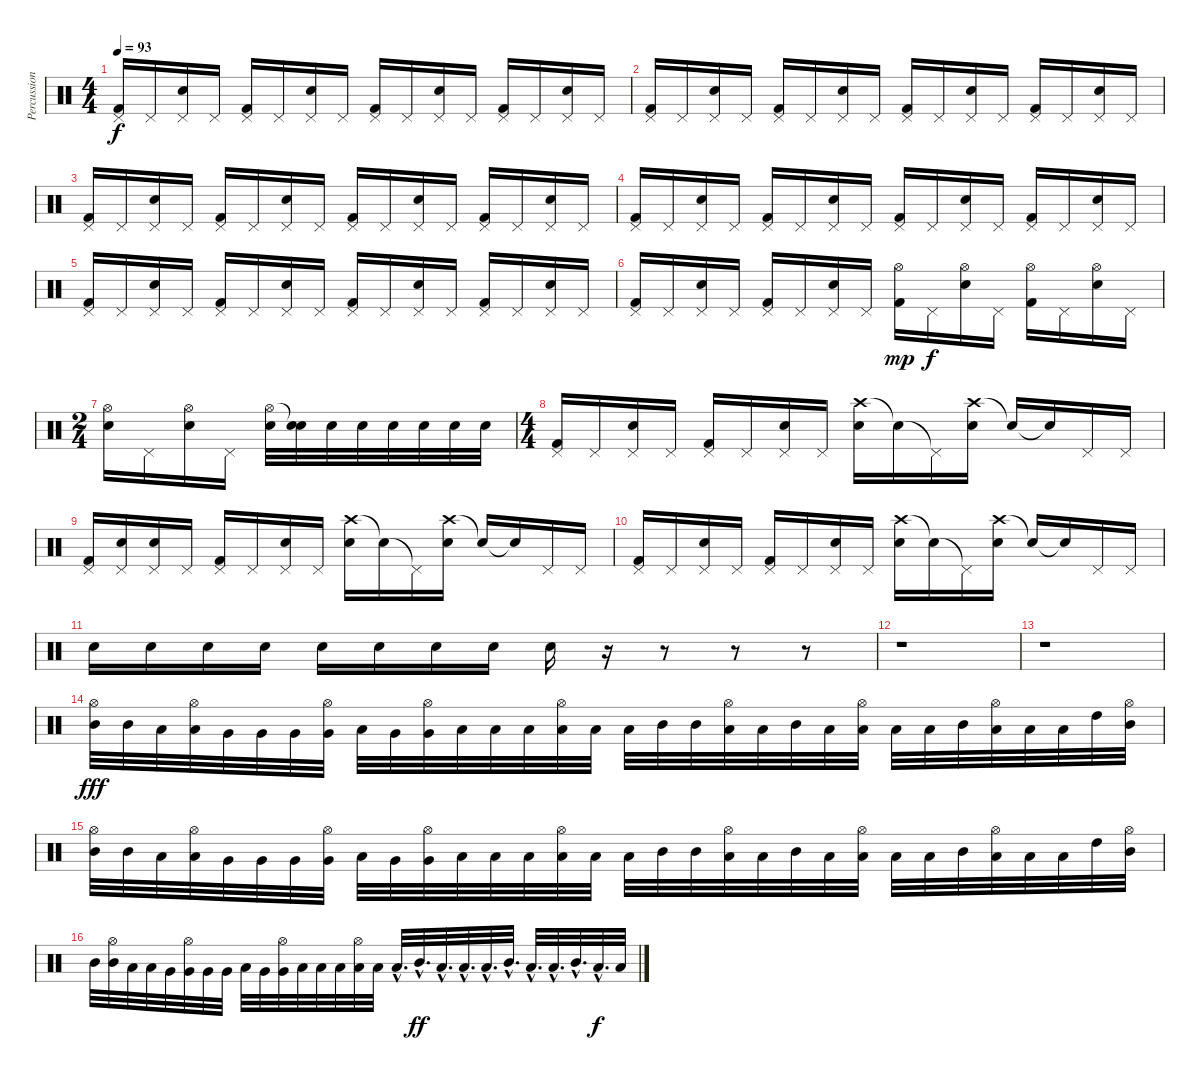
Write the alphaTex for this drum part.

\track ("Percussioni" "Percussion") {instrument percussion}
\staff {score}
\articulation defaults
\ts (4 4)
\tempo 93
\clef neutral
\ks c
("Pedal Hi-Hat (hit)" "Kick (hit) 2").16{dy f} "Pedal Hi-Hat (hit)".16 ("Pedal Hi-Hat (hit)" "Electric Snare (hit)").16 "Pedal Hi-Hat (hit)".16 ("Pedal Hi-Hat (hit)" "Kick (hit) 2").16 "Pedal Hi-Hat (hit)".16 ("Pedal Hi-Hat (hit)" "Electric Snare (hit)").16 "Pedal Hi-Hat (hit)".16 ("Pedal Hi-Hat (hit)" "Kick (hit) 2").16 "Pedal Hi-Hat (hit)".16 ("Pedal Hi-Hat (hit)" "Electric Snare (hit)").16 "Pedal Hi-Hat (hit)".16 ("Pedal Hi-Hat (hit)" "Kick (hit) 2").16 "Pedal Hi-Hat (hit)".16 ("Pedal Hi-Hat (hit)" "Electric Snare (hit)").16 "Pedal Hi-Hat (hit)".16 |
("Pedal Hi-Hat (hit)" "Kick (hit) 2").16 "Pedal Hi-Hat (hit)".16 ("Pedal Hi-Hat (hit)" "Electric Snare (hit)").16 "Pedal Hi-Hat (hit)".16 ("Pedal Hi-Hat (hit)" "Kick (hit) 2").16 "Pedal Hi-Hat (hit)".16 ("Pedal Hi-Hat (hit)" "Electric Snare (hit)").16 "Pedal Hi-Hat (hit)".16 ("Pedal Hi-Hat (hit)" "Kick (hit) 2").16 "Pedal Hi-Hat (hit)".16 ("Pedal Hi-Hat (hit)" "Electric Snare (hit)").16 "Pedal Hi-Hat (hit)".16 ("Pedal Hi-Hat (hit)" "Kick (hit) 2").16 "Pedal Hi-Hat (hit)".16 ("Pedal Hi-Hat (hit)" "Electric Snare (hit)").16 "Pedal Hi-Hat (hit)".16 |
("Pedal Hi-Hat (hit)" "Kick (hit) 2").16 "Pedal Hi-Hat (hit)".16 ("Pedal Hi-Hat (hit)" "Electric Snare (hit)").16 "Pedal Hi-Hat (hit)".16 ("Pedal Hi-Hat (hit)" "Kick (hit) 2").16 "Pedal Hi-Hat (hit)".16 ("Pedal Hi-Hat (hit)" "Electric Snare (hit)").16 "Pedal Hi-Hat (hit)".16 ("Pedal Hi-Hat (hit)" "Kick (hit) 2").16 "Pedal Hi-Hat (hit)".16 ("Pedal Hi-Hat (hit)" "Electric Snare (hit)").16 "Pedal Hi-Hat (hit)".16 ("Pedal Hi-Hat (hit)" "Kick (hit) 2").16 "Pedal Hi-Hat (hit)".16 ("Pedal Hi-Hat (hit)" "Electric Snare (hit)").16 "Pedal Hi-Hat (hit)".16 |
("Pedal Hi-Hat (hit)" "Kick (hit) 2").16 "Pedal Hi-Hat (hit)".16 ("Pedal Hi-Hat (hit)" "Electric Snare (hit)").16 "Pedal Hi-Hat (hit)".16 ("Pedal Hi-Hat (hit)" "Kick (hit) 2").16 "Pedal Hi-Hat (hit)".16 ("Pedal Hi-Hat (hit)" "Electric Snare (hit)").16 "Pedal Hi-Hat (hit)".16 ("Pedal Hi-Hat (hit)" "Kick (hit) 2").16 "Pedal Hi-Hat (hit)".16 ("Pedal Hi-Hat (hit)" "Electric Snare (hit)").16 "Pedal Hi-Hat (hit)".16 ("Pedal Hi-Hat (hit)" "Kick (hit) 2").16 "Pedal Hi-Hat (hit)".16 ("Pedal Hi-Hat (hit)" "Electric Snare (hit)").16 "Pedal Hi-Hat (hit)".16 |
("Pedal Hi-Hat (hit)" "Kick (hit) 2").16 "Pedal Hi-Hat (hit)".16 ("Pedal Hi-Hat (hit)" "Electric Snare (hit)").16 "Pedal Hi-Hat (hit)".16 ("Pedal Hi-Hat (hit)" "Kick (hit) 2").16 "Pedal Hi-Hat (hit)".16 ("Pedal Hi-Hat (hit)" "Electric Snare (hit)").16 "Pedal Hi-Hat (hit)".16 ("Pedal Hi-Hat (hit)" "Kick (hit) 2").16 "Pedal Hi-Hat (hit)".16 ("Pedal Hi-Hat (hit)" "Electric Snare (hit)").16 "Pedal Hi-Hat (hit)".16 ("Pedal Hi-Hat (hit)" "Kick (hit) 2").16 "Pedal Hi-Hat (hit)".16 ("Pedal Hi-Hat (hit)" "Electric Snare (hit)").16 "Pedal Hi-Hat (hit)".16 |
("Pedal Hi-Hat (hit)" "Kick (hit) 2").16 "Pedal Hi-Hat (hit)".16 ("Pedal Hi-Hat (hit)" "Electric Snare (hit)").16 "Pedal Hi-Hat (hit)".16 ("Pedal Hi-Hat (hit)" "Kick (hit) 2").16 "Pedal Hi-Hat (hit)".16 ("Pedal Hi-Hat (hit)" "Electric Snare (hit)").16 "Pedal Hi-Hat (hit)".16 ("Hi-Hat (open)" "Kick (hit) 2").16{dy mp} "Pedal Hi-Hat (hit)".16{dy f} ("Hi-Hat (open)" "Electric Snare (hit)").16 "Pedal Hi-Hat (hit)".16 ("Hi-Hat (open)" "Kick (hit) 2").16 "Pedal Hi-Hat (hit)".16 ("Hi-Hat (open)" "Electric Snare (hit)").16 "Pedal Hi-Hat (hit)".16 |
\ts (2 4)
("Hi-Hat (open)" "Electric Snare (hit)").16 "Pedal Hi-Hat (hit)".16 ("Hi-Hat (open)" "Electric Snare (hit)").16 "Pedal Hi-Hat (hit)".16 ("Hi-Hat (open)" "Electric Snare (hit)").32 ("Snare (hit)"{t} "Electric Snare (hit)").32 "Electric Snare (hit)".32 "Electric Snare (hit)".32 "Electric Snare (hit)".32 "Electric Snare (hit)".32 "Electric Snare (hit)".32 "Electric Snare (hit)".32 |
\ts (4 4)
("Pedal Hi-Hat (hit)" "Kick (hit) 2").16 "Pedal Hi-Hat (hit)".16 ("Pedal Hi-Hat (hit)" "Electric Snare (hit)").16 "Pedal Hi-Hat (hit)".16 ("Pedal Hi-Hat (hit)" "Kick (hit) 2").16 "Pedal Hi-Hat (hit)".16 ("Pedal Hi-Hat (hit)" "Electric Snare (hit)").16 "Pedal Hi-Hat (hit)".16 ("Crash high (hit)" "Electric Snare (hit)").16 "Snare (hit)"{t}.16 "Pedal Hi-Hat (hit)"{t}.16 ("Crash high (hit)" "Electric Snare (hit)").16 "Electric Snare (hit)"{t}.16 "Snare (hit)"{t}.16 "Pedal Hi-Hat (hit)".16 "Pedal Hi-Hat (hit)".16 |
("Pedal Hi-Hat (hit)" "Kick (hit) 2").16 ("Pedal Hi-Hat (hit)" "Snare (hit)").16 ("Pedal Hi-Hat (hit)" "Electric Snare (hit)").16 "Pedal Hi-Hat (hit)".16 ("Pedal Hi-Hat (hit)" "Kick (hit) 2").16 "Pedal Hi-Hat (hit)".16 ("Pedal Hi-Hat (hit)" "Electric Snare (hit)").16 "Pedal Hi-Hat (hit)".16 ("Crash high (hit)" "Electric Snare (hit)").16 "Snare (hit)"{t}.16 "Pedal Hi-Hat (hit)"{t}.16 ("Crash high (hit)" "Electric Snare (hit)").16 "Electric Snare (hit)"{t}.16 "Snare (hit)"{t}.16 "Pedal Hi-Hat (hit)".16 "Pedal Hi-Hat (hit)".16 |
("Pedal Hi-Hat (hit)" "Kick (hit) 2").16 "Pedal Hi-Hat (hit)".16 ("Pedal Hi-Hat (hit)" "Electric Snare (hit)").16 "Pedal Hi-Hat (hit)".16 ("Pedal Hi-Hat (hit)" "Kick (hit) 2").16 "Pedal Hi-Hat (hit)".16 ("Pedal Hi-Hat (hit)" "Electric Snare (hit)").16 "Pedal Hi-Hat (hit)".16 ("Crash high (hit)" "Electric Snare (hit)").16 "Snare (hit)"{t}.16 "Pedal Hi-Hat (hit)"{t}.16 ("Crash high (hit)" "Electric Snare (hit)").16 "Electric Snare (hit)"{t}.16 "Snare (hit)"{t}.16 "Pedal Hi-Hat (hit)".16 "Pedal Hi-Hat (hit)".16 |
"Electric Snare (hit)".16 "Electric Snare (hit)".16 "Electric Snare (hit)".16 "Electric Snare (hit)".16 "Electric Snare (hit)".16 "Electric Snare (hit)".16 "Electric Snare (hit)".16 "Electric Snare (hit)".16 "Electric Snare (hit)".16 r.16 r.8 r.8 r.8 |
r.1 |
r.1 |
("Hi-Hat (open)" "Mid Tom (hit)").32{dy fff} "Mid Tom (hit)".32 "Low Tom (hit)".32 ("Hi-Hat (open)" "Low Tom (hit)").32 "Very Low Tom (hit)".32 "Very Low Tom (hit)".32 "Very Low Tom (hit)".32 ("Hi-Hat (open)" "Very Low Tom (hit)").32 "Low Floor Tom (hit)".32 "Very Low Tom (hit)".32 ("Hi-Hat (open)" "Very Low Tom (hit)").32 "Low Tom (hit)".32 "Low Tom (hit)".32 "Low Tom (hit)".32 ("Hi-Hat (open)" "Low Tom (hit)").32 "Low Tom (hit)".32 "Low Tom (hit)".32 "Mid Tom (hit)".32 "Mid Tom (hit)".32 ("Hi-Hat (open)" "Low Tom (hit)").32 "Low Floor Tom (hit)".32 "Mid Tom (hit)".32 "Low Tom (hit)".32 ("Hi-Hat (open)" "Low Floor Tom (hit)").32 "Low Tom (hit)".32 "Low Tom (hit)".32 "Mid Tom (hit)".32 ("Hi-Hat (open)" "Low Floor Tom (hit)").32 "Low Floor Tom (hit)".32 "Low Tom (hit)".32 "High Tom (hit)".32 ("Hi-Hat (open)" "Mid Tom (hit)").32 |
("Hi-Hat (open)" "Mid Tom (hit)").32 "Mid Tom (hit)".32 "Low Tom (hit)".32 ("Hi-Hat (open)" "Low Tom (hit)").32 "Very Low Tom (hit)".32 "Very Low Tom (hit)".32 "Very Low Tom (hit)".32 ("Hi-Hat (open)" "Very Low Tom (hit)").32 "Low Floor Tom (hit)".32 "Very Low Tom (hit)".32 ("Hi-Hat (open)" "Very Low Tom (hit)").32 "Low Tom (hit)".32 "Low Tom (hit)".32 "Low Tom (hit)".32 ("Hi-Hat (open)" "Low Tom (hit)").32 "Low Tom (hit)".32 "Low Tom (hit)".32 "Mid Tom (hit)".32 "Mid Tom (hit)".32 ("Hi-Hat (open)" "Low Tom (hit)").32 "Low Floor Tom (hit)".32 "Mid Tom (hit)".32 "Low Tom (hit)".32 ("Hi-Hat (open)" "Low Floor Tom (hit)").32 "Low Tom (hit)".32 "Low Tom (hit)".32 "Mid Tom (hit)".32 ("Hi-Hat (open)" "Low Floor Tom (hit)").32 "Low Floor Tom (hit)".32 "Low Tom (hit)".32 "High Tom (hit)".32 ("Hi-Hat (open)" "Mid Tom (hit)").32 |
"Mid Tom (hit)".32 ("Hi-Hat (open)" "Mid Tom (hit)").32 "Low Tom (hit)".32 "Low Tom (hit)".32 "Very Low Tom (hit)".32 ("Hi-Hat (open)" "Very Low Tom (hit)").32 "Very Low Tom (hit)".32 "Very Low Tom (hit)".32 "Low Floor Tom (hit)".32 "Very Low Tom (hit)".32 ("Hi-Hat (open)" "Very Low Tom (hit)").32 "Low Tom (hit)".32 "Low Tom (hit)".32 "Low Tom (hit)".32 ("Hi-Hat (open)" "Low Tom (hit)").32 "Low Tom (hit)".32 "Low Tom (hit)"{hac}.32{d} "Mid Tom (hit)"{hac}.32{d dy ff} "Low Floor Tom (hit)"{hac}.32{d} "Low Tom (hit)"{hac}.32{d} "Low Floor Tom (hit)"{hac}.32{d} "Mid Tom (hit)"{hac}.32{d} "Low Tom (hit)"{hac}.32{d} "Low Floor Tom (hit)"{hac}.32{d} "Mid Tom (hit)"{hac}.32{d} "Low Tom (hit)"{hac}.32{d dy f} "Low Tom (hit)".32
